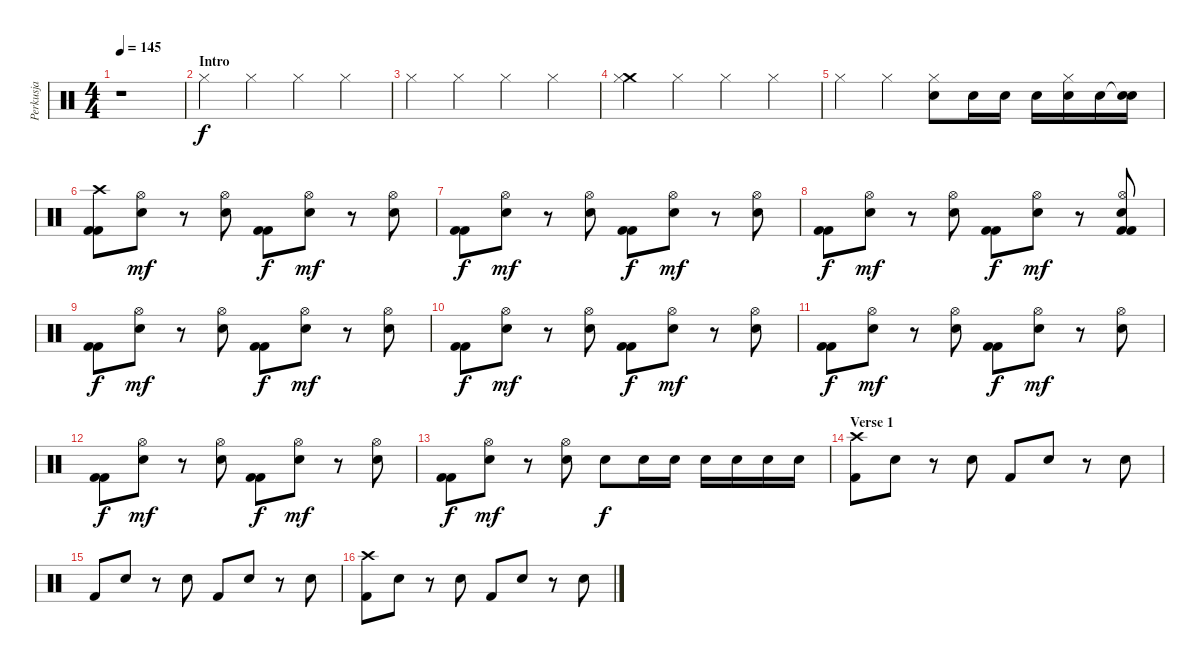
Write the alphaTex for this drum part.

\track ("Perkusja" "Perkusja") {instrument percussion}
\staff {score}
\articulation defaults
\ts (4 4)
\tempo 145
\clef neutral
\ks c
r.1{dy f} |
\section ("" "Intro")
"Hi-Hat (closed)".4 "Hi-Hat (closed)".4 "Hi-Hat (closed)".4 "Hi-Hat (closed)".4 |
"Hi-Hat (closed)".4 "Hi-Hat (closed)".4 "Hi-Hat (closed)".4 "Hi-Hat (closed)".4 |
("Crash medium (hit)" "Hi-Hat (closed)").4 "Hi-Hat (closed)".4 "Hi-Hat (closed)".4 "Hi-Hat (closed)".4 |
"Hi-Hat (closed)".4 "Hi-Hat (closed)".4 ("Hi-Hat (closed)" "Snare (hit) 2").8 "Snare (hit) 2".16 "Snare (hit) 2".16 "Snare (hit) 2".16 ("Hi-Hat (closed)" "Snare (hit) 2").16 "Snare (hit) 2".16 ("Snare (hit)"{t} "Snare (hit) 2").16 |
("Crash high (hit)" "Kick (hit) 2" "Kick (hit) 2").8 ("Hi-Hat (open)" "Electric Snare (hit)").8{dy mf} r.8 ("Hi-Hat (open)" "Electric Snare (hit)").8 ("Kick (hit) 2" "Kick (hit) 2").8{dy f} ("Hi-Hat (open)" "Electric Snare (hit)").8{dy mf} r.8 ("Hi-Hat (open)" "Electric Snare (hit)").8 |
("Kick (hit) 2" "Kick (hit) 2").8{dy f} ("Hi-Hat (open)" "Electric Snare (hit)").8{dy mf} r.8 ("Hi-Hat (open)" "Electric Snare (hit)").8 ("Kick (hit) 2" "Kick (hit) 2").8{dy f} ("Hi-Hat (open)" "Electric Snare (hit)").8{dy mf} r.8 ("Hi-Hat (open)" "Electric Snare (hit)").8 |
("Kick (hit) 2" "Kick (hit) 2").8{dy f} ("Hi-Hat (open)" "Electric Snare (hit)").8{dy mf} r.8 ("Hi-Hat (open)" "Electric Snare (hit)").8 ("Kick (hit) 2" "Kick (hit) 2").8{dy f} ("Hi-Hat (open)" "Electric Snare (hit)").8{dy mf} r.8 ("Hi-Hat (open)" "Electric Snare (hit)" "Kick (hit) 2" "Kick (hit) 2").8 |
("Kick (hit) 2" "Kick (hit) 2").8{dy f} ("Hi-Hat (open)" "Electric Snare (hit)").8{dy mf} r.8 ("Hi-Hat (open)" "Electric Snare (hit)").8 ("Kick (hit) 2" "Kick (hit) 2").8{dy f} ("Hi-Hat (open)" "Electric Snare (hit)").8{dy mf} r.8 ("Hi-Hat (open)" "Electric Snare (hit)").8 |
("Kick (hit) 2" "Kick (hit) 2").8{dy f} ("Hi-Hat (open)" "Electric Snare (hit)").8{dy mf} r.8 ("Hi-Hat (open)" "Electric Snare (hit)").8 ("Kick (hit) 2" "Kick (hit) 2").8{dy f} ("Hi-Hat (open)" "Electric Snare (hit)").8{dy mf} r.8 ("Hi-Hat (open)" "Electric Snare (hit)").8 |
("Kick (hit) 2" "Kick (hit) 2").8{dy f} ("Hi-Hat (open)" "Electric Snare (hit)").8{dy mf} r.8 ("Hi-Hat (open)" "Electric Snare (hit)").8 ("Kick (hit) 2" "Kick (hit) 2").8{dy f} ("Hi-Hat (open)" "Electric Snare (hit)").8{dy mf} r.8 ("Hi-Hat (open)" "Electric Snare (hit)").8 |
("Kick (hit) 2" "Kick (hit) 2").8{dy f} ("Hi-Hat (open)" "Electric Snare (hit)").8{dy mf} r.8 ("Hi-Hat (open)" "Electric Snare (hit)").8 ("Kick (hit) 2" "Kick (hit) 2").8{dy f} ("Hi-Hat (open)" "Electric Snare (hit)").8{dy mf} r.8 ("Hi-Hat (open)" "Electric Snare (hit)").8 |
("Kick (hit) 2" "Kick (hit) 2").8{dy f} ("Hi-Hat (open)" "Electric Snare (hit)").8{dy mf} r.8 ("Hi-Hat (open)" "Electric Snare (hit)").8 "Electric Snare (hit)".8{dy f} "Electric Snare (hit)".16 "Electric Snare (hit)".16 "Electric Snare (hit)".16 "Electric Snare (hit)".16 "Electric Snare (hit)".16 "Electric Snare (hit)".16 |
\section ("" "Verse 1")
("Crash high (hit)" "Kick (hit) 2").8 "Electric Snare (hit)".8 r.8 "Electric Snare (hit)".8 "Kick (hit) 2".8 "Electric Snare (hit)".8 r.8 "Electric Snare (hit)".8 |
"Kick (hit) 2".8 "Electric Snare (hit)".8 r.8 "Electric Snare (hit)".8 "Kick (hit) 2".8 "Electric Snare (hit)".8 r.8 "Electric Snare (hit)".8 |
("Crash high (hit)" "Kick (hit) 2").8 "Electric Snare (hit)".8 r.8 "Electric Snare (hit)".8 "Kick (hit) 2".8 "Electric Snare (hit)".8 r.8 "Electric Snare (hit)".8
